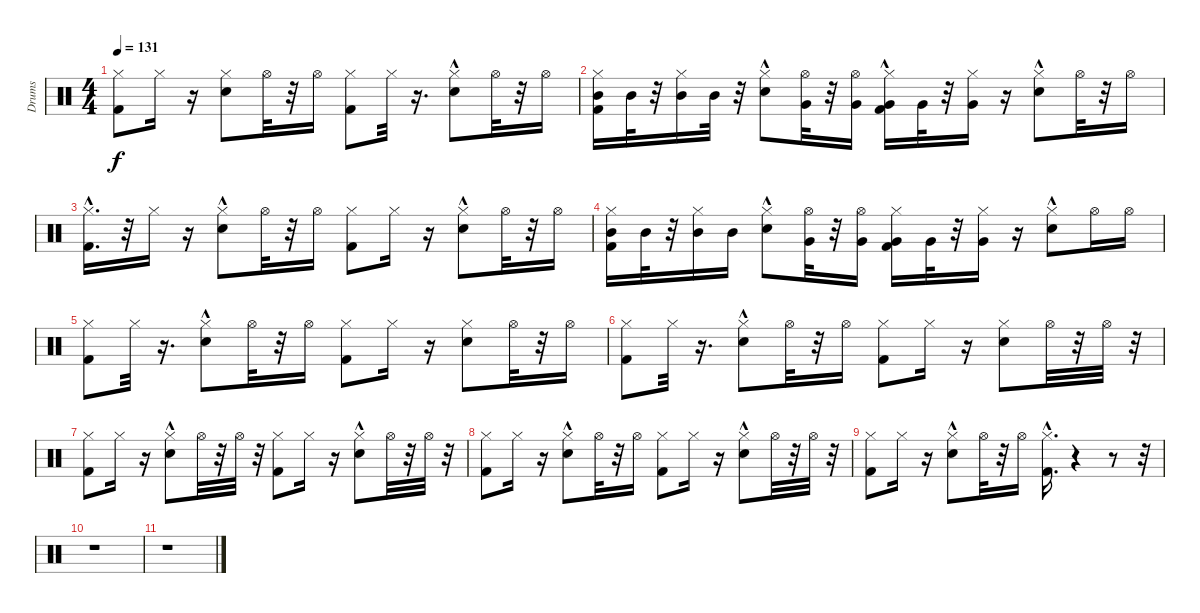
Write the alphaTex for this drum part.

\track ("Drums" "Drums") {instrument percussion}
\staff {score}
\articulation defaults
\ts (4 4)
\tempo 131
\clef neutral
\ks c
("Kick (hit) 2" "Hi-Hat (closed)").8{dy f} "Hi-Hat (closed)".16 r.16 ("Snare (hit) 2" "Hi-Hat (closed)").8 "Hi-Hat (open)".32 r.32 "Hi-Hat (open)".16 ("Kick (hit) 2" "Hi-Hat (closed)").8 "Hi-Hat (closed)".32 r.16{d} ("Snare (hit) 2" "Hi-Hat (closed)"{hac}).8 "Hi-Hat (open)".32 r.32 "Hi-Hat (open)".16 |
("Kick (hit) 2" "Hi-Hat (closed)" "Mid Tom (hit)").16 "Mid Tom (hit)".32 r.32 ("Hi-Hat (closed)" "Mid Tom (hit)").16 "Mid Tom (hit)".32 r.32 ("Snare (hit) 2" "Hi-Hat (closed)"{hac}).8 ("Hi-Hat (open)" "Very Low Tom (hit)").32 r.32 ("Hi-Hat (open)" "Very Low Tom (hit)").16 ("Kick (hit) 2"{hac} "Hi-Hat (closed)" "Very Low Tom (hit)").16 "Very Low Tom (hit)".32 r.32 ("Hi-Hat (closed)" "Very Low Tom (hit)").16 r.16 ("Snare (hit) 2" "Hi-Hat (closed)"{hac}).8 "Hi-Hat (open)".32 r.32 "Hi-Hat (open)".16 |
("Kick (hit) 2"{hac} "Hi-Hat (closed)").16{d} r.32 "Hi-Hat (closed)".16 r.16 ("Snare (hit) 2" "Hi-Hat (closed)"{hac}).8 "Hi-Hat (open)".32 r.32 "Hi-Hat (open)".16 ("Kick (hit) 2" "Hi-Hat (closed)").8 "Hi-Hat (closed)".16 r.16 ("Snare (hit) 2" "Hi-Hat (closed)"{hac}).8 "Hi-Hat (open)".32 r.32 "Hi-Hat (open)".16 |
("Kick (hit) 2" "Hi-Hat (closed)" "Mid Tom (hit)").16 "Mid Tom (hit)".32 r.32 ("Hi-Hat (closed)" "Mid Tom (hit)").16 "Mid Tom (hit)".16 ("Snare (hit) 2" "Hi-Hat (closed)"{hac}).8 ("Hi-Hat (open)" "Very Low Tom (hit)").32 r.32 ("Hi-Hat (open)" "Very Low Tom (hit)").16 ("Kick (hit) 2" "Hi-Hat (closed)" "Very Low Tom (hit)").16 "Very Low Tom (hit)".32 r.32 ("Hi-Hat (closed)" "Very Low Tom (hit)").16 r.16 ("Snare (hit) 2" "Hi-Hat (closed)"{hac}).8 "Hi-Hat (open)".16 "Hi-Hat (open)".16 |
("Kick (hit) 2" "Hi-Hat (closed)").8 "Hi-Hat (closed)".32 r.16{d} ("Snare (hit) 2" "Hi-Hat (closed)"{hac}).8 "Hi-Hat (open)".32 r.32 "Hi-Hat (open)".16 ("Kick (hit) 2" "Hi-Hat (closed)").8 "Hi-Hat (closed)".16 r.16 ("Snare (hit) 2" "Hi-Hat (closed)").8 "Hi-Hat (open)".32 r.32 "Hi-Hat (open)".16 |
("Kick (hit) 2" "Hi-Hat (closed)").8 "Hi-Hat (closed)".32 r.16{d} ("Snare (hit) 2" "Hi-Hat (closed)"{hac}).8 "Hi-Hat (open)".32 r.32 "Hi-Hat (open)".16 ("Kick (hit) 2" "Hi-Hat (closed)").8 "Hi-Hat (closed)".16 r.16 ("Snare (hit) 2" "Hi-Hat (closed)").8 "Hi-Hat (open)".32 r.32 "Hi-Hat (open)".32 r.32 |
("Kick (hit) 2" "Hi-Hat (closed)").8 "Hi-Hat (closed)".16 r.16 ("Snare (hit) 2" "Hi-Hat (closed)"{hac}).8 "Hi-Hat (open)".32 r.32 "Hi-Hat (open)".32 r.32 ("Kick (hit) 2" "Hi-Hat (closed)").8 "Hi-Hat (closed)".16 r.16 ("Snare (hit) 2" "Hi-Hat (closed)"{hac}).8 "Hi-Hat (open)".32 r.32 "Hi-Hat (open)".32 r.32 |
("Kick (hit) 2" "Hi-Hat (closed)").8 "Hi-Hat (closed)".16 r.16 ("Snare (hit) 2" "Hi-Hat (closed)"{hac}).8 "Hi-Hat (open)".32 r.32 "Hi-Hat (open)".16 ("Kick (hit) 2" "Hi-Hat (closed)").8 "Hi-Hat (closed)".16 r.16 ("Snare (hit) 2" "Hi-Hat (closed)"{hac}).8 "Hi-Hat (open)".32 r.32 "Hi-Hat (open)".32 r.32 |
("Kick (hit) 2" "Hi-Hat (closed)").8 "Hi-Hat (closed)".16 r.16 ("Snare (hit) 2" "Hi-Hat (closed)"{hac}).8 "Hi-Hat (open)".32 r.32 "Hi-Hat (open)".16 ("Kick (hit) 2"{hac} "Hi-Hat (closed)").16{d} r.4 r.8 r.32 |
r.1 |
r.1
